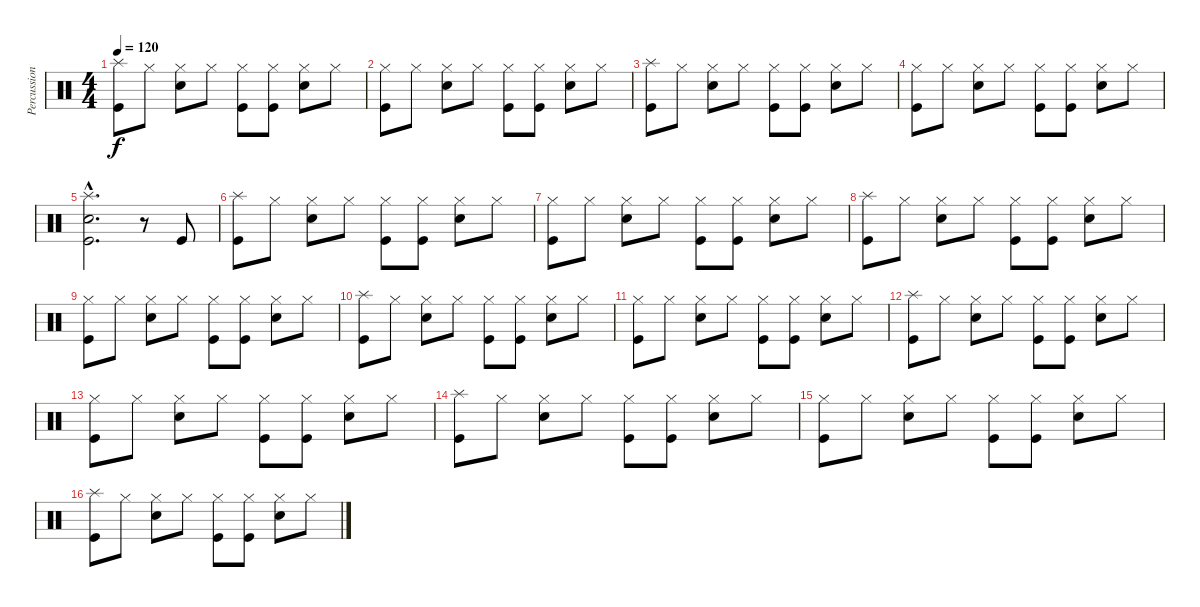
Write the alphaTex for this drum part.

\track ("Percussion" "Percussion") {instrument percussion}
\staff {score}
\articulation defaults
\ts (4 4)
\tempo 120
\clef neutral
\ks c
("Splash (hit)" "Kick (hit)").8{dy f} "Hi-Hat (closed)".8 ("Hi-Hat (closed)" "Snare (hit) 2").8 "Hi-Hat (closed)".8 ("Hi-Hat (closed)" "Kick (hit)").8 ("Hi-Hat (closed)" "Kick (hit)").8 ("Hi-Hat (closed)" "Snare (hit) 2").8 "Hi-Hat (closed)".8 |
("Hi-Hat (closed)" "Kick (hit)").8 "Hi-Hat (closed)".8 ("Hi-Hat (closed)" "Snare (hit) 2").8 "Hi-Hat (closed)".8 ("Hi-Hat (closed)" "Kick (hit)").8 ("Hi-Hat (closed)" "Kick (hit)").8 ("Hi-Hat (closed)" "Snare (hit) 2").8 "Hi-Hat (closed)".8 |
("Splash (hit)" "Kick (hit)").8 "Hi-Hat (closed)".8 ("Hi-Hat (closed)" "Snare (hit) 2").8 "Hi-Hat (closed)".8 ("Hi-Hat (closed)" "Kick (hit)").8 ("Hi-Hat (closed)" "Kick (hit)").8 ("Hi-Hat (closed)" "Snare (hit) 2").8 "Hi-Hat (closed)".8 |
("Hi-Hat (closed)" "Kick (hit)").8 "Hi-Hat (closed)".8 ("Hi-Hat (closed)" "Snare (hit) 2").8 "Hi-Hat (closed)".8 ("Hi-Hat (closed)" "Kick (hit)").8 ("Hi-Hat (closed)" "Kick (hit)").8 ("Hi-Hat (closed)" "Snare (hit) 2").8 "Hi-Hat (closed)".8 |
("Splash (hit)"{hac} "Kick (hit)"{hac} "Snare (hit) 2"{hac}).2{d} r.8 "Kick (hit)".8 |
("Splash (hit)" "Kick (hit)").8 "Hi-Hat (closed)".8 ("Hi-Hat (closed)" "Snare (hit) 2").8 "Hi-Hat (closed)".8 ("Hi-Hat (closed)" "Kick (hit)").8 ("Hi-Hat (closed)" "Kick (hit)").8 ("Hi-Hat (closed)" "Snare (hit) 2").8 "Hi-Hat (closed)".8 |
("Hi-Hat (closed)" "Kick (hit)").8 "Hi-Hat (closed)".8 ("Hi-Hat (closed)" "Snare (hit) 2").8 "Hi-Hat (closed)".8 ("Hi-Hat (closed)" "Kick (hit)").8 ("Hi-Hat (closed)" "Kick (hit)").8 ("Hi-Hat (closed)" "Snare (hit) 2").8 "Hi-Hat (closed)".8 |
("Splash (hit)" "Kick (hit)").8 "Hi-Hat (closed)".8 ("Hi-Hat (closed)" "Snare (hit) 2").8 "Hi-Hat (closed)".8 ("Hi-Hat (closed)" "Kick (hit)").8 ("Hi-Hat (closed)" "Kick (hit)").8 ("Hi-Hat (closed)" "Snare (hit) 2").8 "Hi-Hat (closed)".8 |
("Hi-Hat (closed)" "Kick (hit)").8 "Hi-Hat (closed)".8 ("Hi-Hat (closed)" "Snare (hit) 2").8 "Hi-Hat (closed)".8 ("Hi-Hat (closed)" "Kick (hit)").8 ("Hi-Hat (closed)" "Kick (hit)").8 ("Hi-Hat (closed)" "Snare (hit) 2").8 "Hi-Hat (closed)".8 |
("Splash (hit)" "Kick (hit)").8 "Hi-Hat (closed)".8 ("Hi-Hat (closed)" "Snare (hit) 2").8 "Hi-Hat (closed)".8 ("Hi-Hat (closed)" "Kick (hit)").8 ("Hi-Hat (closed)" "Kick (hit)").8 ("Hi-Hat (closed)" "Snare (hit) 2").8 "Hi-Hat (closed)".8 |
("Hi-Hat (closed)" "Kick (hit)").8 "Hi-Hat (closed)".8 ("Hi-Hat (closed)" "Snare (hit) 2").8 "Hi-Hat (closed)".8 ("Hi-Hat (closed)" "Kick (hit)").8 ("Hi-Hat (closed)" "Kick (hit)").8 ("Hi-Hat (closed)" "Snare (hit) 2").8 "Hi-Hat (closed)".8 |
("Splash (hit)" "Kick (hit)").8 "Hi-Hat (closed)".8 ("Hi-Hat (closed)" "Snare (hit) 2").8 "Hi-Hat (closed)".8 ("Hi-Hat (closed)" "Kick (hit)").8 ("Hi-Hat (closed)" "Kick (hit)").8 ("Hi-Hat (closed)" "Snare (hit) 2").8 "Hi-Hat (closed)".8 |
("Hi-Hat (closed)" "Kick (hit)").8 "Hi-Hat (closed)".8 ("Hi-Hat (closed)" "Snare (hit) 2").8 "Hi-Hat (closed)".8 ("Hi-Hat (closed)" "Kick (hit)").8 ("Hi-Hat (closed)" "Kick (hit)").8 ("Hi-Hat (closed)" "Snare (hit) 2").8 "Hi-Hat (closed)".8 |
("Splash (hit)" "Kick (hit)").8 "Hi-Hat (closed)".8 ("Hi-Hat (closed)" "Snare (hit) 2").8 "Hi-Hat (closed)".8 ("Hi-Hat (closed)" "Kick (hit)").8 ("Hi-Hat (closed)" "Kick (hit)").8 ("Hi-Hat (closed)" "Snare (hit) 2").8 "Hi-Hat (closed)".8 |
("Hi-Hat (closed)" "Kick (hit)").8 "Hi-Hat (closed)".8 ("Hi-Hat (closed)" "Snare (hit) 2").8 "Hi-Hat (closed)".8 ("Hi-Hat (closed)" "Kick (hit)").8 ("Hi-Hat (closed)" "Kick (hit)").8 ("Hi-Hat (closed)" "Snare (hit) 2").8 "Hi-Hat (closed)".8 |
("Splash (hit)" "Kick (hit)").8 "Hi-Hat (closed)".8 ("Hi-Hat (closed)" "Snare (hit) 2").8 "Hi-Hat (closed)".8 ("Hi-Hat (closed)" "Kick (hit)").8 ("Hi-Hat (closed)" "Kick (hit)").8 ("Hi-Hat (closed)" "Snare (hit) 2").8 "Hi-Hat (closed)".8
